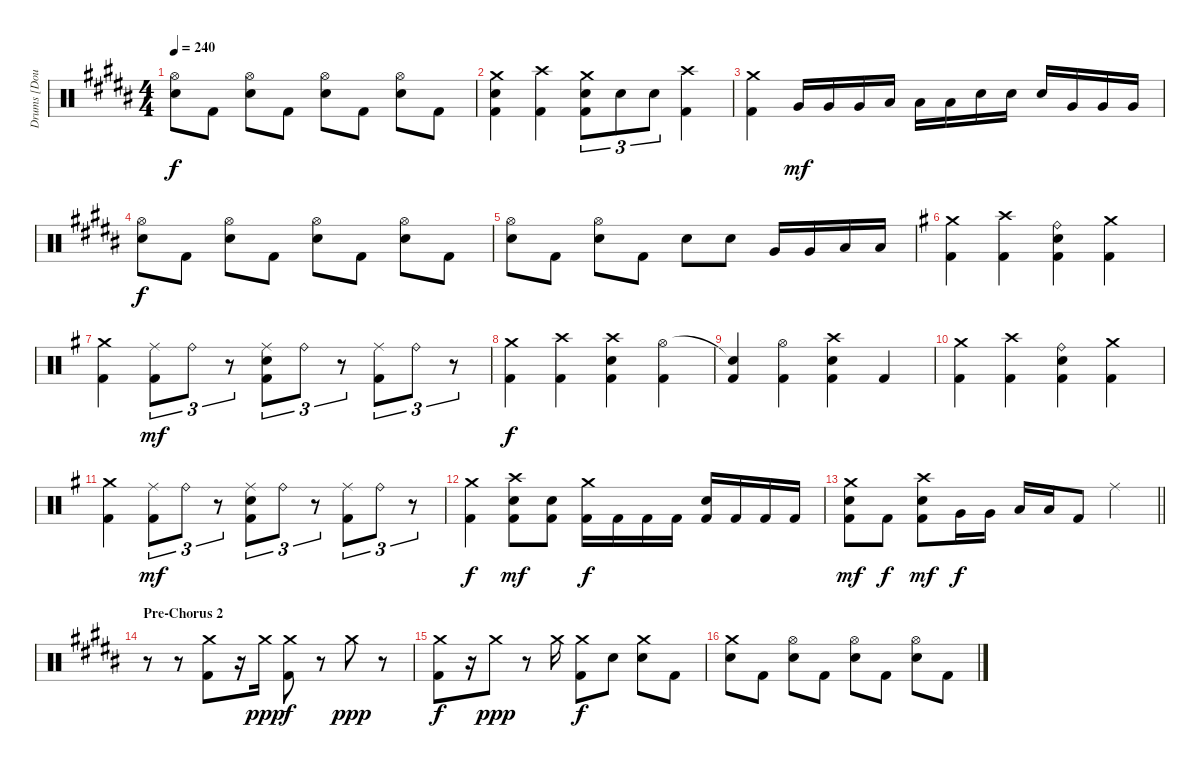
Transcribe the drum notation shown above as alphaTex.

\track ("Drums [Doug Anderson]" "Drums [Dou") {instrument percussion}
\staff {score}
\articulation defaults
\ts (4 4)
\tempo 240
\clef neutral
\ks b
("Hi-Hat (open)" "Electric Snare (hit)").8{dy f} "Kick (hit) 2".8 ("Hi-Hat (open)" "Electric Snare (hit)").8 "Kick (hit) 2".8 ("Hi-Hat (open)" "Electric Snare (hit)").8 "Kick (hit) 2".8 ("Hi-Hat (open)" "Electric Snare (hit)").8 "Kick (hit) 2".8 |
("Crash medium (hit)" "Electric Snare (hit)" "Kick (hit) 2").4 ("Crash high (hit)" "Kick (hit) 2").4 ("Crash medium (hit)" "Electric Snare (hit)" "Kick (hit) 2").8{tu (3 2)} "Electric Snare (hit)".8{tu (3 2)} "Electric Snare (hit)".8{tu (3 2)} ("Crash high (hit)" "Kick (hit) 2").4 |
("Crash medium (hit)" "Kick (hit) 2").4 "Very Low Tom (hit)".16{dy mf} "Very Low Tom (hit)".16 "Very Low Tom (hit)".16 "Low Floor Tom (hit)".16 "Low Floor Tom (hit)".16 "Low Floor Tom (hit)".16 "Electric Snare (hit)".16 "Electric Snare (hit)".16 "Electric Snare (hit)".16 "Very Low Tom (hit)".16 "Very Low Tom (hit)".16 "Very Low Tom (hit)".16 |
("Hi-Hat (open)" "Electric Snare (hit)").8{dy f} "Kick (hit) 2".8 ("Hi-Hat (open)" "Electric Snare (hit)").8 "Kick (hit) 2".8 ("Hi-Hat (open)" "Electric Snare (hit)").8 "Kick (hit) 2".8 ("Hi-Hat (open)" "Electric Snare (hit)").8 "Kick (hit) 2".8 |
("Hi-Hat (open)" "Electric Snare (hit)").8 "Kick (hit) 2".8 ("Hi-Hat (open)" "Electric Snare (hit)").8 "Kick (hit) 2".8 "Electric Snare (hit)".8 "Electric Snare (hit)".8 "Very Low Tom (hit)".16 "Very Low Tom (hit)".16 "Low Tom (hit)".16 "Low Tom (hit)".16 |
\ks g
("Crash medium (hit)" "Kick (hit) 2").4 ("Crash high (hit)" "Kick (hit) 2").4 ("Ride (bell)" "Electric Snare (hit)" "Kick (hit) 2").4 ("Crash medium (hit)" "Kick (hit) 2").4 |
("Crash medium (hit)" "Kick (hit) 2").4 ("Ride (middle)" "Kick (hit) 2").8{tu (3 2) dy mf} "Ride (bell)".8{tu (3 2)} r.8{tu (3 2)} ("Ride (middle)" "Electric Snare (hit)" "Kick (hit) 2").8{tu (3 2)} "Ride (bell)".8{tu (3 2)} r.8{tu (3 2)} ("Ride (middle)" "Kick (hit) 2").8{tu (3 2)} "Ride (bell)".8{tu (3 2)} r.8{tu (3 2)} |
("Crash medium (hit)" "Kick (hit) 2").4{dy f} ("Crash high (hit)" "Kick (hit) 2").4 ("Crash high (hit)" "Electric Snare (hit)" "Kick (hit) 2").4 ("Hi-Hat (open)" "Kick (hit) 2").4 |
("Snare (hit)"{t} "Kick (hit) 2").4 ("Hi-Hat (open)" "Kick (hit) 2").4 ("Crash high (hit)" "Electric Snare (hit)" "Kick (hit) 2").4 "Kick (hit) 2".4 |
("Crash medium (hit)" "Kick (hit) 2").4 ("Crash high (hit)" "Kick (hit) 2").4 ("Ride (bell)" "Electric Snare (hit)" "Kick (hit) 2").4 ("Crash medium (hit)" "Kick (hit) 2").4 |
("Crash medium (hit)" "Kick (hit) 2").4 ("Ride (middle)" "Kick (hit) 2").8{tu (3 2) dy mf} "Ride (bell)".8{tu (3 2)} r.8{tu (3 2)} ("Ride (middle)" "Electric Snare (hit)" "Kick (hit) 2").8{tu (3 2)} "Ride (bell)".8{tu (3 2)} r.8{tu (3 2)} ("Ride (middle)" "Kick (hit) 2").8{tu (3 2)} "Ride (bell)".8{tu (3 2)} r.8{tu (3 2)} |
("Crash medium (hit)" "Kick (hit) 2").4{dy f} ("Crash high (hit)" "Electric Snare (hit)" "Kick (hit) 2").8{dy mf} ("Electric Snare (hit)" "Kick (hit) 2").8 ("Crash medium (hit)" "Kick (hit) 2").16{dy f} "Kick (hit) 2".16 "Kick (hit) 2".16 "Kick (hit) 2".16 ("Electric Snare (hit)" "Kick (hit) 2").16 "Kick (hit) 2".16 "Kick (hit) 2".16 "Kick (hit) 2".16 |
\barLineRight lightlight
("Crash medium (hit)" "Electric Snare (hit)" "Kick (hit) 2").8{dy mf} "Kick (hit) 2".8{dy f} ("Crash high (hit)" "Electric Snare (hit)" "Kick (hit) 2").8{dy mf} "Very Low Tom (hit)".16{dy f} "Very Low Tom (hit)".16 "Low Tom (hit)".16 "Low Tom (hit)".16 "Kick (hit) 2".8 "Ride (middle)".4 |
\section ("" "Pre-Chorus 2")
\ks b
r.8 r.8 ("Crash medium (hit)" "Kick (hit) 2").8 r.16 "Crash medium (hit)".16{dy ppp} ("Crash medium (hit)" "Kick (hit) 2").8{dy f} r.8 "Crash medium (hit)".8{dy ppp} r.8 |
("Crash medium (hit)" "Kick (hit) 2").8{dy f} r.16 "Crash medium (hit)".8{dy ppp} r.8 "Crash medium (hit)".16 ("Crash medium (hit)" "Kick (hit) 2").8{dy f} "Electric Snare (hit)".8 ("Crash medium (hit)" "Electric Snare (hit)").8 "Kick (hit) 2".8 |
("Crash medium (hit)" "Electric Snare (hit)").8 "Kick (hit) 2".8 ("Hi-Hat (open)" "Electric Snare (hit)").8 "Kick (hit) 2".8 ("Hi-Hat (open)" "Electric Snare (hit)").8 "Kick (hit) 2".8 ("Hi-Hat (open)" "Electric Snare (hit)").8 "Kick (hit) 2".8
